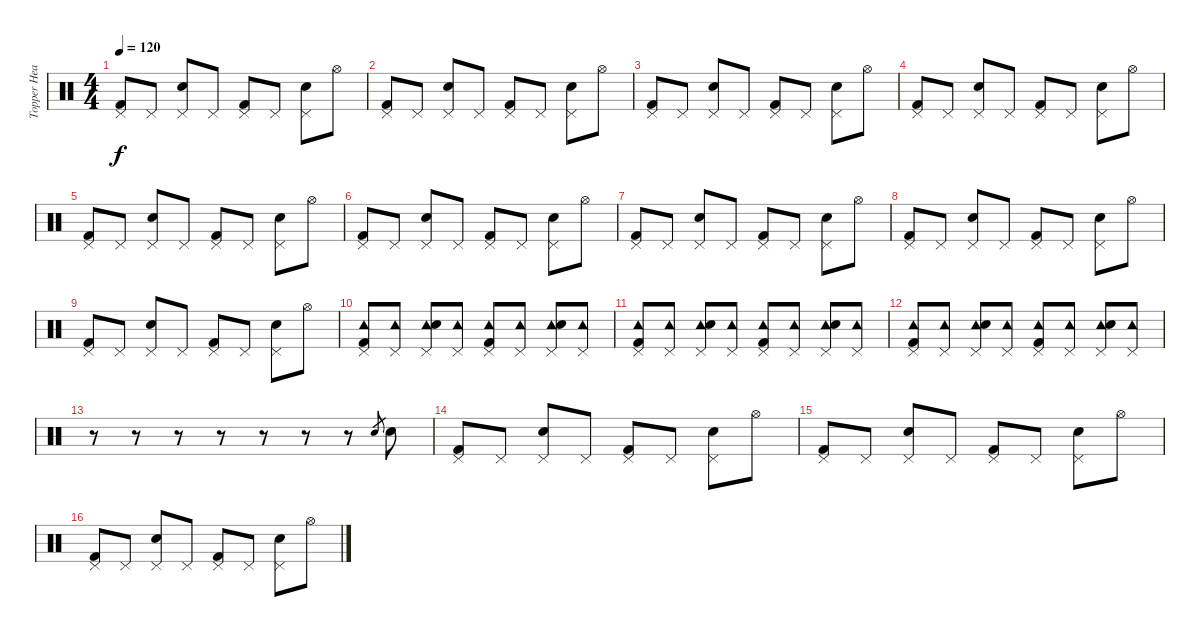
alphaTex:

\track ("Topper Headon" "Topper Hea") {instrument percussion}
\staff {score}
\articulation defaults
\ts (4 4)
\tempo 120
\clef neutral
\ks c
("Pedal Hi-Hat (hit)" "Kick (hit) 2").8{dy f} "Pedal Hi-Hat (hit)".8 ("Pedal Hi-Hat (hit)" "Electric Snare (hit)").8 "Pedal Hi-Hat (hit)".8 ("Pedal Hi-Hat (hit)" "Kick (hit) 2").8 "Pedal Hi-Hat (hit)".8 ("Pedal Hi-Hat (hit)" "Electric Snare (hit)").8 "Hi-Hat (open)".8 |
("Pedal Hi-Hat (hit)" "Kick (hit) 2").8 "Pedal Hi-Hat (hit)".8 ("Pedal Hi-Hat (hit)" "Electric Snare (hit)").8 "Pedal Hi-Hat (hit)".8 ("Pedal Hi-Hat (hit)" "Kick (hit) 2").8 "Pedal Hi-Hat (hit)".8 ("Pedal Hi-Hat (hit)" "Electric Snare (hit)").8 "Hi-Hat (open)".8 |
("Pedal Hi-Hat (hit)" "Kick (hit) 2").8 "Pedal Hi-Hat (hit)".8 ("Pedal Hi-Hat (hit)" "Electric Snare (hit)").8 "Pedal Hi-Hat (hit)".8 ("Pedal Hi-Hat (hit)" "Kick (hit) 2").8 "Pedal Hi-Hat (hit)".8 ("Pedal Hi-Hat (hit)" "Electric Snare (hit)").8 "Hi-Hat (open)".8 |
("Pedal Hi-Hat (hit)" "Kick (hit) 2").8 "Pedal Hi-Hat (hit)".8 ("Pedal Hi-Hat (hit)" "Electric Snare (hit)").8 "Pedal Hi-Hat (hit)".8 ("Pedal Hi-Hat (hit)" "Kick (hit) 2").8 "Pedal Hi-Hat (hit)".8 ("Pedal Hi-Hat (hit)" "Electric Snare (hit)").8 "Hi-Hat (open)".8 |
("Pedal Hi-Hat (hit)" "Kick (hit) 2").8 "Pedal Hi-Hat (hit)".8 ("Pedal Hi-Hat (hit)" "Electric Snare (hit)").8 "Pedal Hi-Hat (hit)".8 ("Pedal Hi-Hat (hit)" "Kick (hit) 2").8 "Pedal Hi-Hat (hit)".8 ("Pedal Hi-Hat (hit)" "Electric Snare (hit)").8 "Hi-Hat (open)".8 |
("Pedal Hi-Hat (hit)" "Kick (hit) 2").8 "Pedal Hi-Hat (hit)".8 ("Pedal Hi-Hat (hit)" "Electric Snare (hit)").8 "Pedal Hi-Hat (hit)".8 ("Pedal Hi-Hat (hit)" "Kick (hit) 2").8 "Pedal Hi-Hat (hit)".8 ("Pedal Hi-Hat (hit)" "Electric Snare (hit)").8 "Hi-Hat (open)".8 |
("Pedal Hi-Hat (hit)" "Kick (hit) 2").8 "Pedal Hi-Hat (hit)".8 ("Pedal Hi-Hat (hit)" "Electric Snare (hit)").8 "Pedal Hi-Hat (hit)".8 ("Pedal Hi-Hat (hit)" "Kick (hit) 2").8 "Pedal Hi-Hat (hit)".8 ("Pedal Hi-Hat (hit)" "Electric Snare (hit)").8 "Hi-Hat (open)".8 |
("Pedal Hi-Hat (hit)" "Kick (hit) 2").8 "Pedal Hi-Hat (hit)".8 ("Pedal Hi-Hat (hit)" "Electric Snare (hit)").8 "Pedal Hi-Hat (hit)".8 ("Pedal Hi-Hat (hit)" "Kick (hit) 2").8 "Pedal Hi-Hat (hit)".8 ("Pedal Hi-Hat (hit)" "Electric Snare (hit)").8 "Hi-Hat (open)".8 |
("Pedal Hi-Hat (hit)" "Kick (hit) 2").8 "Pedal Hi-Hat (hit)".8 ("Pedal Hi-Hat (hit)" "Electric Snare (hit)").8 "Pedal Hi-Hat (hit)".8 ("Pedal Hi-Hat (hit)" "Kick (hit) 2").8 "Pedal Hi-Hat (hit)".8 ("Pedal Hi-Hat (hit)" "Electric Snare (hit)").8 "Hi-Hat (open)".8 |
("Tambourine (hit)" "Pedal Hi-Hat (hit)" "Kick (hit) 2").8 ("Tambourine (hit)" "Pedal Hi-Hat (hit)").8 ("Tambourine (hit)" "Pedal Hi-Hat (hit)" "Electric Snare (hit)").8 ("Tambourine (hit)" "Pedal Hi-Hat (hit)").8 ("Tambourine (hit)" "Pedal Hi-Hat (hit)" "Kick (hit) 2").8 ("Tambourine (hit)" "Pedal Hi-Hat (hit)").8 ("Tambourine (hit)" "Pedal Hi-Hat (hit)" "Electric Snare (hit)").8 ("Tambourine (hit)" "Pedal Hi-Hat (hit)").8 |
("Tambourine (hit)" "Pedal Hi-Hat (hit)" "Kick (hit) 2").8 ("Tambourine (hit)" "Pedal Hi-Hat (hit)").8 ("Tambourine (hit)" "Pedal Hi-Hat (hit)" "Electric Snare (hit)").8 ("Tambourine (hit)" "Pedal Hi-Hat (hit)").8 ("Tambourine (hit)" "Pedal Hi-Hat (hit)" "Kick (hit) 2").8 ("Tambourine (hit)" "Pedal Hi-Hat (hit)").8 ("Tambourine (hit)" "Pedal Hi-Hat (hit)" "Electric Snare (hit)").8 ("Tambourine (hit)" "Pedal Hi-Hat (hit)").8 |
("Tambourine (hit)" "Pedal Hi-Hat (hit)" "Kick (hit) 2").8 ("Tambourine (hit)" "Pedal Hi-Hat (hit)").8 ("Tambourine (hit)" "Pedal Hi-Hat (hit)" "Electric Snare (hit)").8 ("Tambourine (hit)" "Pedal Hi-Hat (hit)").8 ("Tambourine (hit)" "Pedal Hi-Hat (hit)" "Kick (hit) 2").8 ("Tambourine (hit)" "Pedal Hi-Hat (hit)").8 ("Tambourine (hit)" "Pedal Hi-Hat (hit)" "Electric Snare (hit)").8 ("Tambourine (hit)" "Pedal Hi-Hat (hit)").8 |
r.8 r.8 r.8 r.8 r.8 r.8 r.8 "Electric Snare (hit)".8{gr} "Electric Snare (hit)".8 |
("Pedal Hi-Hat (hit)" "Kick (hit) 2").8 "Pedal Hi-Hat (hit)".8 ("Pedal Hi-Hat (hit)" "Electric Snare (hit)").8 "Pedal Hi-Hat (hit)".8 ("Pedal Hi-Hat (hit)" "Kick (hit) 2").8 "Pedal Hi-Hat (hit)".8 ("Pedal Hi-Hat (hit)" "Electric Snare (hit)").8 "Hi-Hat (open)".8 |
("Pedal Hi-Hat (hit)" "Kick (hit) 2").8 "Pedal Hi-Hat (hit)".8 ("Pedal Hi-Hat (hit)" "Electric Snare (hit)").8 "Pedal Hi-Hat (hit)".8 ("Pedal Hi-Hat (hit)" "Kick (hit) 2").8 "Pedal Hi-Hat (hit)".8 ("Pedal Hi-Hat (hit)" "Electric Snare (hit)").8 "Hi-Hat (open)".8 |
("Pedal Hi-Hat (hit)" "Kick (hit) 2").8 "Pedal Hi-Hat (hit)".8 ("Pedal Hi-Hat (hit)" "Electric Snare (hit)").8 "Pedal Hi-Hat (hit)".8 ("Pedal Hi-Hat (hit)" "Kick (hit) 2").8 "Pedal Hi-Hat (hit)".8 ("Pedal Hi-Hat (hit)" "Electric Snare (hit)").8 "Hi-Hat (open)".8
